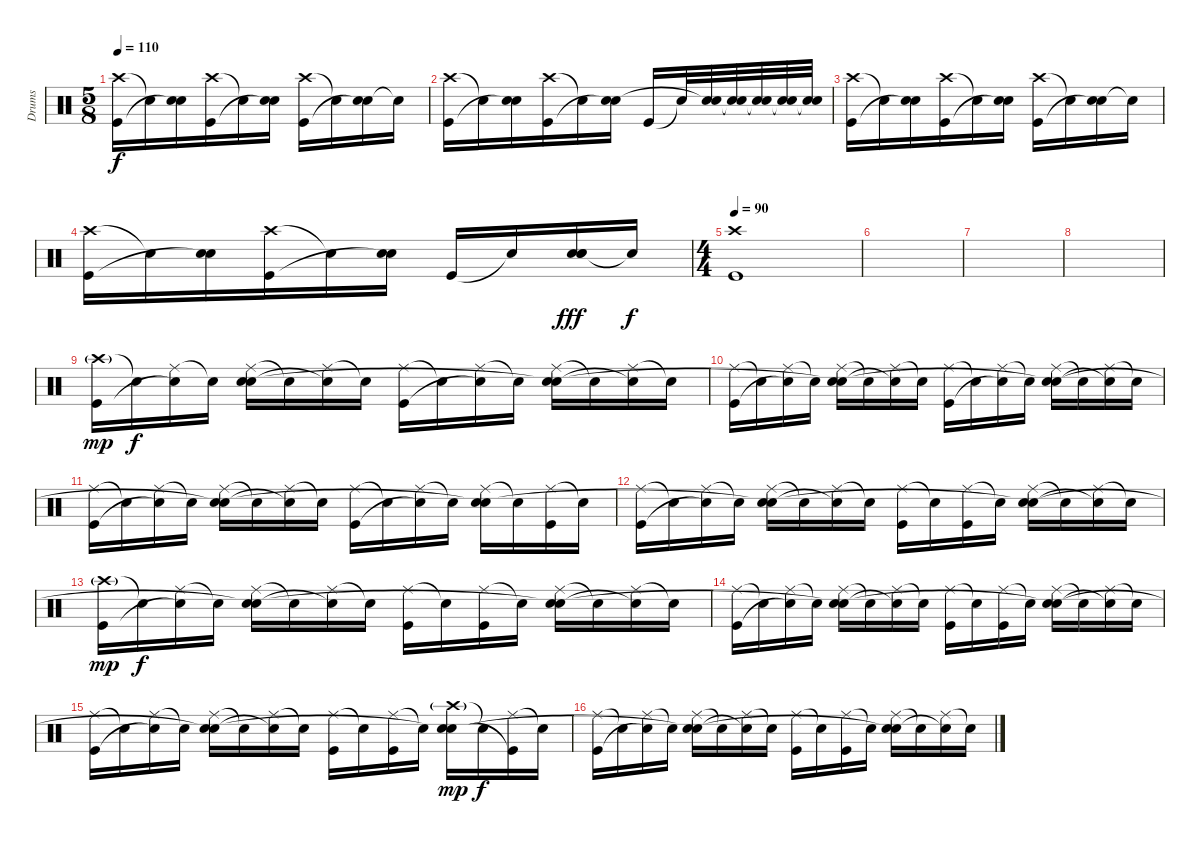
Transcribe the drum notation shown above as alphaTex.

\track ("Drums" "Drums") {instrument percussion}
\staff {score}
\articulation defaults
\ts (5 8)
\tempo 110
\clef neutral
\ks c
("Crash high (hit)" "Kick (hit)").16{dy f} "Snare (hit)"{t}.16 ("Electric Snare (hit)" "Snare (hit)"{t}).16 ("Crash high (hit)" "Kick (hit)").16 "Snare (hit)"{t}.16 ("Electric Snare (hit)" "Snare (hit)"{t}).16 ("Crash high (hit)" "Kick (hit)").16 "Snare (hit)"{t}.16 ("Electric Snare (hit)" "Snare (hit)"{t}).16 "Snare (hit)"{t}.16 |
("Crash high (hit)" "Kick (hit)").16 "Snare (hit)"{t}.16 ("Electric Snare (hit)" "Snare (hit)"{t}).16 ("Crash high (hit)" "Kick (hit)").16 "Snare (hit)"{t}.16 ("Electric Snare (hit)" "Snare (hit)"{t}).16 "Kick (hit)".16 "Snare (hit)"{t}.32 ("Electric Snare (hit)" "Snare (hit)"{t}).32 ("Electric Snare (hit)" "Snare (hit)"{t}).32 ("Electric Snare (hit)" "Snare (hit)"{t}).32 ("Electric Snare (hit)" "Snare (hit)"{t}).32 ("Electric Snare (hit)" "Snare (hit)"{t}).32 |
("Crash high (hit)" "Kick (hit)").16 "Snare (hit)"{t}.16 ("Electric Snare (hit)" "Snare (hit)"{t}).16 ("Crash high (hit)" "Kick (hit)").16 "Snare (hit)"{t}.16 ("Electric Snare (hit)" "Snare (hit)"{t}).16 ("Crash high (hit)" "Kick (hit)").16 "Snare (hit)"{t}.16 ("Electric Snare (hit)" "Snare (hit)"{t}).16 "Snare (hit)"{t}.16 |
("Crash high (hit)" "Kick (hit)").16 "Snare (hit)"{t}.16 ("Electric Snare (hit)" "Snare (hit)"{t}).16 ("Crash high (hit)" "Kick (hit)").16 "Snare (hit)"{t}.16 ("Electric Snare (hit)" "Snare (hit)"{t}).16 "Kick (hit)".16 "Snare (hit)"{t}.16 ("Snare (hit) 2" "Electric Snare (hit)" "Snare (hit)").16{bd 480 dy fff} "Snare (hit)"{t}.16{dy f} |
\ts (4 4)
\tempo 90
("Crash high (hit)" "Kick (hit)").1 |
|
|
|
("Crash high (hit)"{g} "Kick (hit)").16{dy mp} "Snare (hit)"{t}.16{dy f} ("Ride (middle)" "Snare (hit)"{t}).16 "Snare (hit)"{t}.16 ("Ride (middle)" "Electric Snare (hit)" "Snare (hit)").16 "Snare (hit)"{t}.16 ("Ride (middle)" "Snare (hit)"{t}).16 "Snare (hit)"{t}.16 ("Ride (middle)" "Kick (hit)").16 "Snare (hit)"{t}.16 ("Ride (middle)" "Snare (hit)"{t}).16 "Snare (hit)"{t}.16 ("Ride (middle)" "Electric Snare (hit)" "Snare (hit)"{t}).16 "Snare (hit)"{t}.16 ("Ride (middle)" "Snare (hit)"{t}).16 "Snare (hit)"{t}.16 |
("Ride (middle)" "Kick (hit)").16 "Snare (hit)"{t}.16 ("Ride (middle)" "Snare (hit)"{t}).16 "Snare (hit)"{t}.16 ("Ride (middle)" "Electric Snare (hit)" "Snare (hit)"{t}).16 "Snare (hit)"{t}.16 ("Ride (middle)" "Snare (hit)"{t}).16 "Snare (hit)"{t}.16 ("Ride (middle)" "Kick (hit)").16 "Snare (hit)"{t}.16 ("Ride (middle)" "Snare (hit)"{t}).16 "Snare (hit)"{t}.16 ("Ride (middle)" "Electric Snare (hit)" "Snare (hit)"{t}).16 "Snare (hit)"{t}.16 ("Ride (middle)" "Snare (hit)"{t}).16 "Snare (hit)"{t}.16 |
("Ride (middle)" "Kick (hit)").16 "Snare (hit)"{t}.16 ("Ride (middle)" "Snare (hit)"{t}).16 "Snare (hit)"{t}.16 ("Ride (middle)" "Electric Snare (hit)" "Snare (hit)"{t}).16 "Snare (hit)"{t}.16 ("Ride (middle)" "Snare (hit)"{t}).16 "Snare (hit)"{t}.16 ("Ride (middle)" "Kick (hit)").16 "Snare (hit)"{t}.16 ("Ride (middle)" "Snare (hit)"{t}).16 "Snare (hit)"{t}.16 ("Ride (middle)" "Electric Snare (hit)" "Snare (hit)"{t}).16 "Snare (hit)"{t}.16 ("Ride (middle)" "Kick (hit)").16 "Snare (hit)"{t}.16 |
("Ride (middle)" "Kick (hit)").16 "Snare (hit)"{t}.16 ("Ride (middle)" "Snare (hit)"{t}).16 "Snare (hit)"{t}.16 ("Ride (middle)" "Electric Snare (hit)" "Snare (hit)"{t}).16 "Snare (hit)"{t}.16 ("Ride (middle)" "Snare (hit)"{t}).16 "Snare (hit)"{t}.16 ("Ride (middle)" "Kick (hit)").16 "Snare (hit)"{t}.16 ("Ride (middle)" "Kick (hit)").16 "Snare (hit)"{t}.16 ("Ride (middle)" "Electric Snare (hit)" "Snare (hit)"{t}).16 "Snare (hit)"{t}.16 ("Ride (middle)" "Snare (hit)"{t}).16 "Snare (hit)"{t}.16 |
("Crash high (hit)"{g} "Kick (hit)").16{dy mp} "Snare (hit)"{t}.16{dy f} ("Ride (middle)" "Snare (hit)"{t}).16 "Snare (hit)"{t}.16 ("Ride (middle)" "Electric Snare (hit)" "Snare (hit)"{t}).16 "Snare (hit)"{t}.16 ("Ride (middle)" "Snare (hit)"{t}).16 "Snare (hit)"{t}.16 ("Ride (middle)" "Kick (hit)").16 "Snare (hit)"{t}.16 ("Ride (middle)" "Kick (hit)").16 "Snare (hit)"{t}.16 ("Ride (middle)" "Electric Snare (hit)" "Snare (hit)"{t}).16 "Snare (hit)"{t}.16 ("Ride (middle)" "Snare (hit)"{t}).16 "Snare (hit)"{t}.16 |
("Ride (middle)" "Kick (hit)").16 "Snare (hit)"{t}.16 ("Ride (middle)" "Snare (hit)"{t}).16 "Snare (hit)"{t}.16 ("Ride (middle)" "Electric Snare (hit)" "Snare (hit)"{t}).16 "Snare (hit)"{t}.16 ("Ride (middle)" "Snare (hit)"{t}).16 "Snare (hit)"{t}.16 ("Ride (middle)" "Kick (hit)").16 "Snare (hit)"{t}.16 ("Ride (middle)" "Kick (hit)").16 "Snare (hit)"{t}.16 ("Ride (middle)" "Electric Snare (hit)" "Snare (hit)"{t}).16 "Snare (hit)"{t}.16 ("Ride (middle)" "Snare (hit)"{t}).16 "Snare (hit)"{t}.16 |
("Ride (middle)" "Kick (hit)").16 "Snare (hit)"{t}.16 ("Ride (middle)" "Snare (hit)"{t}).16 "Snare (hit)"{t}.16 ("Ride (middle)" "Electric Snare (hit)" "Snare (hit)"{t}).16 "Snare (hit)"{t}.16 ("Ride (middle)" "Snare (hit)"{t}).16 "Snare (hit)"{t}.16 ("Ride (middle)" "Kick (hit)").16 "Snare (hit)"{t}.16 ("Ride (middle)" "Kick (hit)").16 "Snare (hit)"{t}.16 ("Crash high (hit)"{g} "Electric Snare (hit)" "Snare (hit)"{t}).16{dy mp} "Snare (hit)"{t}.16{dy f} ("Ride (middle)" "Kick (hit)"{t}).16 "Snare (hit)"{t}.16 |
("Ride (middle)" "Kick (hit)").16 "Snare (hit)"{t}.16 ("Ride (middle)" "Snare (hit)"{t}).16 "Snare (hit)"{t}.16 ("Ride (middle)" "Electric Snare (hit)" "Snare (hit)"{t}).16 "Snare (hit)"{t}.16 ("Ride (middle)" "Snare (hit)"{t}).16 "Snare (hit)"{t}.16 ("Ride (middle)" "Kick (hit)").16 "Snare (hit)"{t}.16 ("Ride (middle)" "Kick (hit)").16 "Snare (hit)"{t}.16 ("Ride (middle)" "Electric Snare (hit)" "Snare (hit)"{t}).16 "Snare (hit)"{t}.16 ("Ride (middle)" "Snare (hit)"{t}).16 "Snare (hit)"{t}.16
